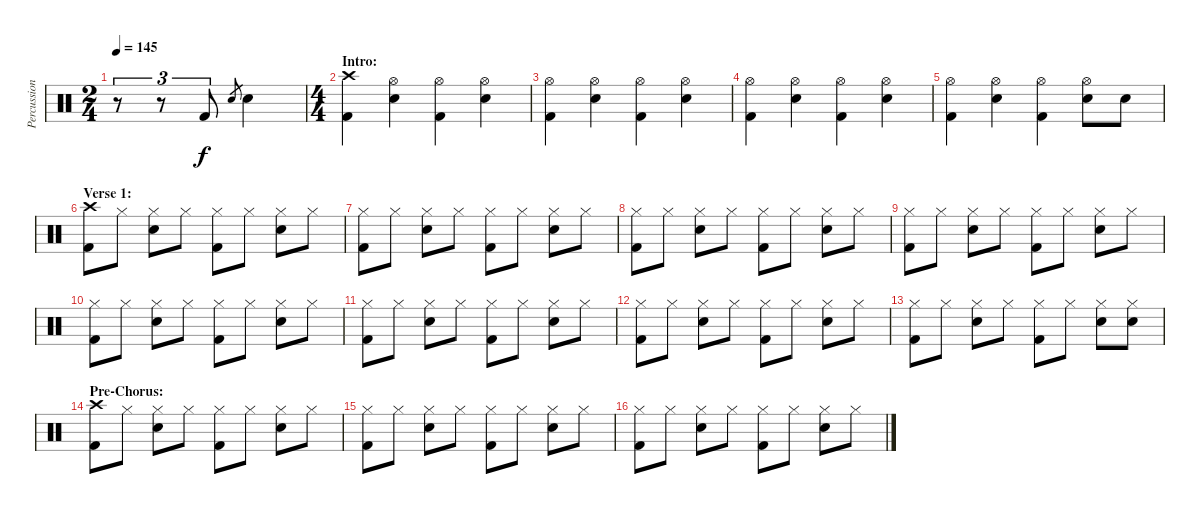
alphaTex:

\track ("Percussion" "Percussion") {instrument percussion}
\staff {score}
\articulation defaults
\ts (2 4)
\tempo 145
\clef neutral
\ks c
r.8{tu (3 2) dy f} r.8{tu (3 2)} "Kick (hit) 2".8{tu (3 2)} "Snare (hit) 2".8{gr} "Snare (hit) 2".4 |
\ts (4 4)
\section ("" "Intro:")
("Crash high (hit)" "Kick (hit) 2").4 ("Hi-Hat (open)" "Snare (hit) 2").4 ("Hi-Hat (open)" "Kick (hit) 2").4 ("Hi-Hat (open)" "Snare (hit) 2").4 |
("Hi-Hat (open)" "Kick (hit) 2").4 ("Hi-Hat (open)" "Snare (hit) 2").4 ("Hi-Hat (open)" "Kick (hit) 2").4 ("Hi-Hat (open)" "Snare (hit) 2").4 |
("Hi-Hat (open)" "Kick (hit) 2").4 ("Hi-Hat (open)" "Snare (hit) 2").4 ("Hi-Hat (open)" "Kick (hit) 2").4 ("Hi-Hat (open)" "Snare (hit) 2").4 |
("Hi-Hat (open)" "Kick (hit) 2").4 ("Hi-Hat (open)" "Snare (hit) 2").4 ("Hi-Hat (open)" "Kick (hit) 2").4 ("Hi-Hat (open)" "Snare (hit) 2").8 "Snare (hit) 2".8 |
\section ("" "Verse 1:")
("Crash high (hit)" "Kick (hit) 2").8 "Hi-Hat (closed)".8 ("Hi-Hat (closed)" "Snare (hit) 2").8 "Hi-Hat (closed)".8 ("Hi-Hat (closed)" "Kick (hit) 2").8 "Hi-Hat (closed)".8 ("Hi-Hat (closed)" "Snare (hit) 2").8 "Hi-Hat (closed)".8 |
("Hi-Hat (closed)" "Kick (hit) 2").8 "Hi-Hat (closed)".8 ("Hi-Hat (closed)" "Snare (hit) 2").8 "Hi-Hat (closed)".8 ("Hi-Hat (closed)" "Kick (hit) 2").8 "Hi-Hat (closed)".8 ("Hi-Hat (closed)" "Snare (hit) 2").8 "Hi-Hat (closed)".8 |
("Hi-Hat (closed)" "Kick (hit) 2").8 "Hi-Hat (closed)".8 ("Hi-Hat (closed)" "Snare (hit) 2").8 "Hi-Hat (closed)".8 ("Hi-Hat (closed)" "Kick (hit) 2").8 "Hi-Hat (closed)".8 ("Hi-Hat (closed)" "Snare (hit) 2").8 "Hi-Hat (closed)".8 |
("Hi-Hat (closed)" "Kick (hit) 2").8 "Hi-Hat (closed)".8 ("Hi-Hat (closed)" "Snare (hit) 2").8 "Hi-Hat (closed)".8 ("Hi-Hat (closed)" "Kick (hit) 2").8 "Hi-Hat (closed)".8 ("Hi-Hat (closed)" "Snare (hit) 2").8 "Hi-Hat (closed)".8 |
("Hi-Hat (closed)" "Kick (hit) 2").8 "Hi-Hat (closed)".8 ("Hi-Hat (closed)" "Snare (hit) 2").8 "Hi-Hat (closed)".8 ("Hi-Hat (closed)" "Kick (hit) 2").8 "Hi-Hat (closed)".8 ("Hi-Hat (closed)" "Snare (hit) 2").8 "Hi-Hat (closed)".8 |
("Hi-Hat (closed)" "Kick (hit) 2").8 "Hi-Hat (closed)".8 ("Hi-Hat (closed)" "Snare (hit) 2").8 "Hi-Hat (closed)".8 ("Hi-Hat (closed)" "Kick (hit) 2").8 "Hi-Hat (closed)".8 ("Hi-Hat (closed)" "Snare (hit) 2").8 "Hi-Hat (closed)".8 |
("Hi-Hat (closed)" "Kick (hit) 2").8 "Hi-Hat (closed)".8 ("Hi-Hat (closed)" "Snare (hit) 2").8 "Hi-Hat (closed)".8 ("Hi-Hat (closed)" "Kick (hit) 2").8 "Hi-Hat (closed)".8 ("Hi-Hat (closed)" "Snare (hit) 2").8 "Hi-Hat (closed)".8 |
("Hi-Hat (closed)" "Kick (hit) 2").8 "Hi-Hat (closed)".8 ("Hi-Hat (closed)" "Snare (hit) 2").8 "Hi-Hat (closed)".8 ("Hi-Hat (closed)" "Kick (hit) 2").8 "Hi-Hat (closed)".8 ("Hi-Hat (closed)" "Snare (hit) 2").8 ("Hi-Hat (closed)" "Snare (hit) 2").8 |
\section ("" "Pre-Chorus:")
("Crash high (hit)" "Kick (hit) 2").8 "Hi-Hat (closed)".8 ("Hi-Hat (closed)" "Snare (hit) 2").8 "Hi-Hat (closed)".8 ("Hi-Hat (closed)" "Kick (hit) 2").8 "Hi-Hat (closed)".8 ("Hi-Hat (closed)" "Snare (hit) 2").8 "Hi-Hat (closed)".8 |
("Hi-Hat (closed)" "Kick (hit) 2").8 "Hi-Hat (closed)".8 ("Hi-Hat (closed)" "Snare (hit) 2").8 "Hi-Hat (closed)".8 ("Hi-Hat (closed)" "Kick (hit) 2").8 "Hi-Hat (closed)".8 ("Hi-Hat (closed)" "Snare (hit) 2").8 "Hi-Hat (closed)".8 |
("Hi-Hat (closed)" "Kick (hit) 2").8 "Hi-Hat (closed)".8 ("Hi-Hat (closed)" "Snare (hit) 2").8 "Hi-Hat (closed)".8 ("Hi-Hat (closed)" "Kick (hit) 2").8 "Hi-Hat (closed)".8 ("Hi-Hat (closed)" "Snare (hit) 2").8 "Hi-Hat (closed)".8
